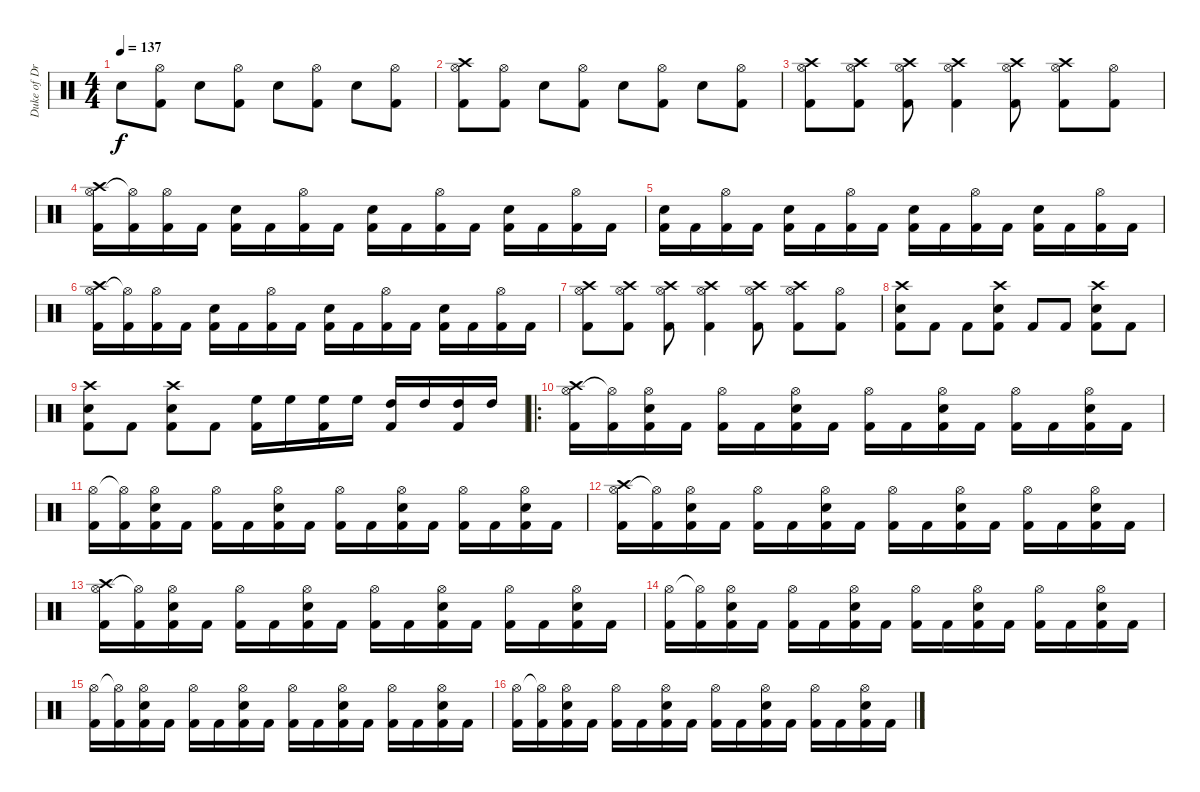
\track ("Duke of Drumington" "Duke of Dr") {instrument percussion}
\staff {score}
\articulation defaults
\ts (4 4)
\tempo 137
\clef neutral
\ks c "Snare (hit) 2".8{dy f}
("Hi-Hat (open)" "Kick (hit) 2").8 "Snare (hit) 2".8 ("Hi-Hat (open)" "Kick (hit) 2").8 "Snare (hit) 2".8 ("Hi-Hat (open)" "Kick (hit) 2").8 "Snare (hit) 2".8 ("Hi-Hat (open)" "Kick (hit) 2").8 |
("Hi-Hat (open)" "Crash high (hit)" "Kick (hit) 2").8 ("Hi-Hat (open)" "Kick (hit) 2").8 "Snare (hit) 2".8 ("Hi-Hat (open)" "Kick (hit) 2").8 "Snare (hit) 2".8 ("Hi-Hat (open)" "Kick (hit) 2").8 "Snare (hit) 2".8 ("Hi-Hat (open)" "Kick (hit) 2").8 |
("Hi-Hat (open)" "Crash high (hit)" "Kick (hit) 2").8 ("Hi-Hat (open)" "Crash high (hit)" "Kick (hit) 2").8 ("Hi-Hat (open)" "Crash high (hit)" "Kick (hit) 2").8 ("Hi-Hat (open)" "Crash high (hit)" "Kick (hit) 2").4 ("Hi-Hat (open)" "Crash high (hit)" "Kick (hit) 2").8 ("Hi-Hat (open)" "Crash high (hit)" "Kick (hit) 2").8 ("Hi-Hat (open)" "Kick (hit) 2").8 |
("Hi-Hat (open)" "Crash high (hit)" "Kick (hit) 2").16 ("Hi-Hat (open)"{t} "Kick (hit) 2").16 ("Hi-Hat (open)" "Kick (hit) 2").16 "Kick (hit) 2".16 ("Snare (hit) 2" "Kick (hit) 2").16 "Kick (hit) 2".16 ("Hi-Hat (open)" "Kick (hit) 2").16 "Kick (hit) 2".16 ("Snare (hit) 2" "Kick (hit) 2").16 "Kick (hit) 2".16 ("Hi-Hat (open)" "Kick (hit) 2").16 "Kick (hit) 2".16 ("Snare (hit) 2" "Kick (hit) 2").16 "Kick (hit) 2".16 ("Hi-Hat (open)" "Kick (hit) 2").16 "Kick (hit) 2".16 |
("Snare (hit) 2" "Kick (hit) 2").16 "Kick (hit) 2".16 ("Hi-Hat (open)" "Kick (hit) 2").16 "Kick (hit) 2".16 ("Snare (hit) 2" "Kick (hit) 2").16 "Kick (hit) 2".16 ("Hi-Hat (open)" "Kick (hit) 2").16 "Kick (hit) 2".16 ("Snare (hit) 2" "Kick (hit) 2").16 "Kick (hit) 2".16 ("Hi-Hat (open)" "Kick (hit) 2").16 "Kick (hit) 2".16 ("Snare (hit) 2" "Kick (hit) 2").16 "Kick (hit) 2".16 ("Hi-Hat (open)" "Kick (hit) 2").16 "Kick (hit) 2".16 |
("Hi-Hat (open)" "Crash high (hit)" "Kick (hit) 2").16 ("Hi-Hat (open)"{t} "Kick (hit) 2").16 ("Hi-Hat (open)" "Kick (hit) 2").16 "Kick (hit) 2".16 ("Snare (hit) 2" "Kick (hit) 2").16 "Kick (hit) 2".16 ("Hi-Hat (open)" "Kick (hit) 2").16 "Kick (hit) 2".16 ("Snare (hit) 2" "Kick (hit) 2").16 "Kick (hit) 2".16 ("Hi-Hat (open)" "Kick (hit) 2").16 "Kick (hit) 2".16 ("Snare (hit) 2" "Kick (hit) 2").16 "Kick (hit) 2".16 ("Hi-Hat (open)" "Kick (hit) 2").16 "Kick (hit) 2".16 |
("Hi-Hat (open)" "Crash high (hit)" "Kick (hit) 2").8 ("Hi-Hat (open)" "Crash high (hit)" "Kick (hit) 2").8 ("Hi-Hat (open)" "Crash high (hit)" "Kick (hit) 2").8 ("Hi-Hat (open)" "Crash high (hit)" "Kick (hit) 2").4 ("Hi-Hat (open)" "Crash high (hit)" "Kick (hit) 2").8 ("Hi-Hat (open)" "Crash high (hit)" "Kick (hit) 2").8 ("Hi-Hat (open)" "Kick (hit) 2").8 |
("Crash high (hit)" "Snare (hit) 2" "Kick (hit) 2").8 "Kick (hit) 2".8 "Kick (hit) 2".8 ("Crash high (hit)" "Snare (hit) 2" "Kick (hit) 2").8 "Kick (hit) 2".8 "Kick (hit) 2".8 ("Crash high (hit)" "Snare (hit) 2" "Kick (hit) 2").8 "Kick (hit) 2".8 |
("Crash high (hit)" "Snare (hit) 2" "Kick (hit) 2").8 "Kick (hit) 2".8 ("Crash high (hit)" "Snare (hit) 2" "Kick (hit) 2").8 "Kick (hit) 2".8 ("High Floor Tom (hit)" "Kick (hit) 2").16 "High Floor Tom (hit)".16 ("High Floor Tom (hit)" "Kick (hit) 2").16 "High Floor Tom (hit)".16 ("High Tom (hit)" "Kick (hit) 2").16 "High Tom (hit)".16 ("High Tom (hit)" "Kick (hit) 2").16 "High Tom (hit)".16 |
\ro
("Hi-Hat (open)" "Crash high (hit)" "Kick (hit) 2").16 ("Hi-Hat (open)"{t} "Kick (hit) 2").16 ("Hi-Hat (open)" "Snare (hit) 2" "Kick (hit) 2").16 "Kick (hit) 2".16 ("Hi-Hat (open)" "Kick (hit) 2").16 "Kick (hit) 2".16 ("Hi-Hat (open)" "Snare (hit) 2" "Kick (hit) 2").16 "Kick (hit) 2".16 ("Hi-Hat (open)" "Kick (hit) 2").16 "Kick (hit) 2".16 ("Hi-Hat (open)" "Snare (hit) 2" "Kick (hit) 2").16 "Kick (hit) 2".16 ("Hi-Hat (open)" "Kick (hit) 2").16 "Kick (hit) 2".16 ("Hi-Hat (open)" "Snare (hit) 2" "Kick (hit) 2").16 "Kick (hit) 2".16 |
("Hi-Hat (open)" "Kick (hit) 2").16 ("Hi-Hat (open)"{t} "Kick (hit) 2").16 ("Hi-Hat (open)" "Snare (hit) 2" "Kick (hit) 2").16 "Kick (hit) 2".16 ("Hi-Hat (open)" "Kick (hit) 2").16 "Kick (hit) 2".16 ("Hi-Hat (open)" "Snare (hit) 2" "Kick (hit) 2").16 "Kick (hit) 2".16 ("Hi-Hat (open)" "Kick (hit) 2").16 "Kick (hit) 2".16 ("Hi-Hat (open)" "Snare (hit) 2" "Kick (hit) 2").16 "Kick (hit) 2".16 ("Hi-Hat (open)" "Kick (hit) 2").16 "Kick (hit) 2".16 ("Hi-Hat (open)" "Snare (hit) 2" "Kick (hit) 2").16 "Kick (hit) 2".16 |
("Hi-Hat (open)" "Crash high (hit)" "Kick (hit) 2").16 ("Hi-Hat (open)"{t} "Kick (hit) 2").16 ("Hi-Hat (open)" "Snare (hit) 2" "Kick (hit) 2").16 "Kick (hit) 2".16 ("Hi-Hat (open)" "Kick (hit) 2").16 "Kick (hit) 2".16 ("Hi-Hat (open)" "Snare (hit) 2" "Kick (hit) 2").16 "Kick (hit) 2".16 ("Hi-Hat (open)" "Kick (hit) 2").16 "Kick (hit) 2".16 ("Hi-Hat (open)" "Snare (hit) 2" "Kick (hit) 2").16 "Kick (hit) 2".16 ("Hi-Hat (open)" "Kick (hit) 2").16 "Kick (hit) 2".16 ("Hi-Hat (open)" "Snare (hit) 2" "Kick (hit) 2").16 "Kick (hit) 2".16 |
("Hi-Hat (open)" "Crash high (hit)" "Kick (hit) 2").16 ("Hi-Hat (open)"{t} "Kick (hit) 2").16 ("Hi-Hat (open)" "Snare (hit) 2" "Kick (hit) 2").16 "Kick (hit) 2".16 ("Hi-Hat (open)" "Kick (hit) 2").16 "Kick (hit) 2".16 ("Hi-Hat (open)" "Snare (hit) 2" "Kick (hit) 2").16 "Kick (hit) 2".16 ("Hi-Hat (open)" "Kick (hit) 2").16 "Kick (hit) 2".16 ("Hi-Hat (open)" "Snare (hit) 2" "Kick (hit) 2").16 "Kick (hit) 2".16 ("Hi-Hat (open)" "Kick (hit) 2").16 "Kick (hit) 2".16 ("Hi-Hat (open)" "Snare (hit) 2" "Kick (hit) 2").16 "Kick (hit) 2".16 |
("Hi-Hat (open)" "Kick (hit) 2").16 ("Hi-Hat (open)"{t} "Kick (hit) 2").16 ("Hi-Hat (open)" "Snare (hit) 2" "Kick (hit) 2").16 "Kick (hit) 2".16 ("Hi-Hat (open)" "Kick (hit) 2").16 "Kick (hit) 2".16 ("Hi-Hat (open)" "Snare (hit) 2" "Kick (hit) 2").16 "Kick (hit) 2".16 ("Hi-Hat (open)" "Kick (hit) 2").16 "Kick (hit) 2".16 ("Hi-Hat (open)" "Snare (hit) 2" "Kick (hit) 2").16 "Kick (hit) 2".16 ("Hi-Hat (open)" "Kick (hit) 2").16 "Kick (hit) 2".16 ("Hi-Hat (open)" "Snare (hit) 2" "Kick (hit) 2").16 "Kick (hit) 2".16 |
("Hi-Hat (open)" "Kick (hit) 2").16 ("Hi-Hat (open)"{t} "Kick (hit) 2").16 ("Hi-Hat (open)" "Snare (hit) 2" "Kick (hit) 2").16 "Kick (hit) 2".16 ("Hi-Hat (open)" "Kick (hit) 2").16 "Kick (hit) 2".16 ("Hi-Hat (open)" "Snare (hit) 2" "Kick (hit) 2").16 "Kick (hit) 2".16 ("Hi-Hat (open)" "Kick (hit) 2").16 "Kick (hit) 2".16 ("Hi-Hat (open)" "Snare (hit) 2" "Kick (hit) 2").16 "Kick (hit) 2".16 ("Hi-Hat (open)" "Kick (hit) 2").16 "Kick (hit) 2".16 ("Hi-Hat (open)" "Snare (hit) 2" "Kick (hit) 2").16 "Kick (hit) 2".16 |
("Hi-Hat (open)" "Kick (hit) 2").16 ("Hi-Hat (open)"{t} "Kick (hit) 2").16 ("Hi-Hat (open)" "Snare (hit) 2" "Kick (hit) 2").16 "Kick (hit) 2".16 ("Hi-Hat (open)" "Kick (hit) 2").16 "Kick (hit) 2".16 ("Hi-Hat (open)" "Snare (hit) 2" "Kick (hit) 2").16 "Kick (hit) 2".16 ("Hi-Hat (open)" "Kick (hit) 2").16 "Kick (hit) 2".16 ("Hi-Hat (open)" "Snare (hit) 2" "Kick (hit) 2").16 "Kick (hit) 2".16 ("Hi-Hat (open)" "Kick (hit) 2").16 "Kick (hit) 2".16 ("Hi-Hat (open)" "Snare (hit) 2" "Kick (hit) 2").16 "Kick (hit) 2".16
